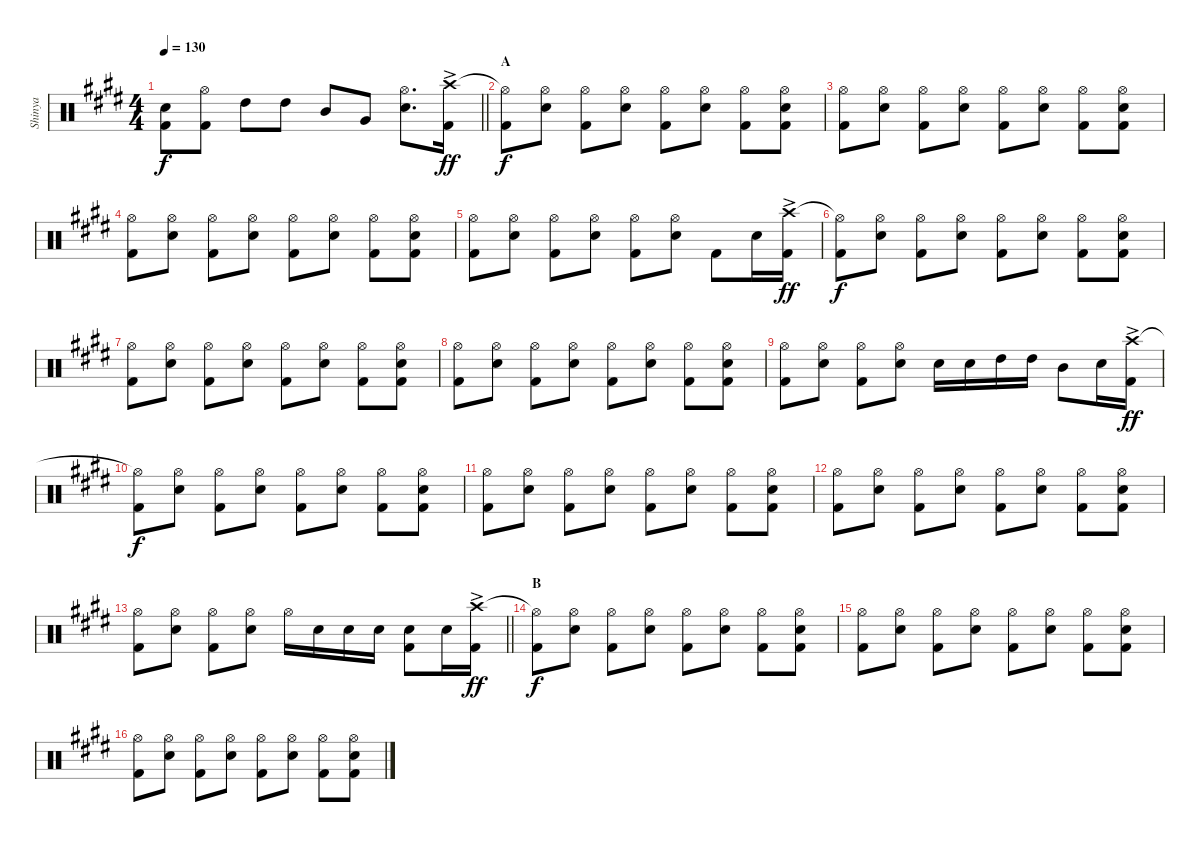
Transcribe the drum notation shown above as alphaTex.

\track ("Shinya" "Shinya") {instrument percussion}
\staff {score}
\articulation defaults
\ts (4 4)
\tempo 130
\clef neutral
\barLineRight lightlight
\ks c#minor
("Snare (hit)"{t} "Kick (hit) 2").8{dy f} ("Hi-Hat (open)" "Kick (hit) 2").8 "High Tom (hit)".8 "High Tom (hit)".8 "Mid Tom (hit)".8 "Very Low Tom (hit)".8 ("Hi-Hat (open)" "Snare (hit) 2").8{d} ("Crash high (hit)"{ac} "Kick (hit) 2").16{dy ff} |
\section ("" "A")
("Hi-Hat (open)"{t} "Kick (hit) 2").8{dy f} ("Hi-Hat (open)" "Snare (hit) 2").8 ("Hi-Hat (open)" "Kick (hit) 2").8 ("Hi-Hat (open)" "Snare (hit) 2").8 ("Hi-Hat (open)" "Kick (hit) 2").8 ("Hi-Hat (open)" "Snare (hit) 2").8 ("Hi-Hat (open)" "Kick (hit) 2").8 ("Hi-Hat (open)" "Snare (hit) 2" "Kick (hit) 2").8 |
("Hi-Hat (open)" "Kick (hit) 2").8 ("Hi-Hat (open)" "Snare (hit) 2").8 ("Hi-Hat (open)" "Kick (hit) 2").8 ("Hi-Hat (open)" "Snare (hit) 2").8 ("Hi-Hat (open)" "Kick (hit) 2").8 ("Hi-Hat (open)" "Snare (hit) 2").8 ("Hi-Hat (open)" "Kick (hit) 2").8 ("Hi-Hat (open)" "Snare (hit) 2" "Kick (hit) 2").8 |
("Hi-Hat (open)" "Kick (hit) 2").8 ("Hi-Hat (open)" "Snare (hit) 2").8 ("Hi-Hat (open)" "Kick (hit) 2").8 ("Hi-Hat (open)" "Snare (hit) 2").8 ("Hi-Hat (open)" "Kick (hit) 2").8 ("Hi-Hat (open)" "Snare (hit) 2").8 ("Hi-Hat (open)" "Kick (hit) 2").8 ("Hi-Hat (open)" "Snare (hit) 2" "Kick (hit) 2").8 |
("Hi-Hat (open)" "Kick (hit) 2").8 ("Hi-Hat (open)" "Snare (hit) 2").8 ("Hi-Hat (open)" "Kick (hit) 2").8 ("Hi-Hat (open)" "Snare (hit) 2").8 ("Hi-Hat (open)" "Kick (hit) 2").8 ("Hi-Hat (open)" "Snare (hit) 2").8 "Kick (hit) 2".8 "Snare (hit) 2".16 ("Crash high (hit)"{ac} "Kick (hit) 2").16{dy ff} |
("Hi-Hat (open)"{t} "Kick (hit) 2").8{dy f} ("Hi-Hat (open)" "Snare (hit) 2").8 ("Hi-Hat (open)" "Kick (hit) 2").8 ("Hi-Hat (open)" "Snare (hit) 2").8 ("Hi-Hat (open)" "Kick (hit) 2").8 ("Hi-Hat (open)" "Snare (hit) 2").8 ("Hi-Hat (open)" "Kick (hit) 2").8 ("Hi-Hat (open)" "Snare (hit) 2" "Kick (hit) 2").8 |
("Hi-Hat (open)" "Kick (hit) 2").8 ("Hi-Hat (open)" "Snare (hit) 2").8 ("Hi-Hat (open)" "Kick (hit) 2").8 ("Hi-Hat (open)" "Snare (hit) 2").8 ("Hi-Hat (open)" "Kick (hit) 2").8 ("Hi-Hat (open)" "Snare (hit) 2").8 ("Hi-Hat (open)" "Kick (hit) 2").8 ("Hi-Hat (open)" "Snare (hit) 2" "Kick (hit) 2").8 |
("Hi-Hat (open)" "Kick (hit) 2").8 ("Hi-Hat (open)" "Snare (hit) 2").8 ("Hi-Hat (open)" "Kick (hit) 2").8 ("Hi-Hat (open)" "Snare (hit) 2").8 ("Hi-Hat (open)" "Kick (hit) 2").8 ("Hi-Hat (open)" "Snare (hit) 2").8 ("Hi-Hat (open)" "Kick (hit) 2").8 ("Hi-Hat (open)" "Snare (hit) 2" "Kick (hit) 2").8 |
("Hi-Hat (open)" "Kick (hit) 2").8 ("Hi-Hat (open)" "Snare (hit) 2").8 ("Hi-Hat (open)" "Kick (hit) 2").8 ("Hi-Hat (open)" "Snare (hit) 2").8 "Snare (hit) 2".16 "Snare (hit) 2".16 "High Tom (hit)".16 "High Tom (hit)".16 "Mid Tom (hit)".8 "Snare (hit) 2".16 ("Crash high (hit)"{ac} "Kick (hit) 2").16{dy ff} |
("Hi-Hat (open)"{t} "Kick (hit) 2").8{dy f} ("Hi-Hat (open)" "Snare (hit) 2").8 ("Hi-Hat (open)" "Kick (hit) 2").8 ("Hi-Hat (open)" "Snare (hit) 2").8 ("Hi-Hat (open)" "Kick (hit) 2").8 ("Hi-Hat (open)" "Snare (hit) 2").8 ("Hi-Hat (open)" "Kick (hit) 2").8 ("Hi-Hat (open)" "Snare (hit) 2" "Kick (hit) 2").8 |
("Hi-Hat (open)" "Kick (hit) 2").8 ("Hi-Hat (open)" "Snare (hit) 2").8 ("Hi-Hat (open)" "Kick (hit) 2").8 ("Hi-Hat (open)" "Snare (hit) 2").8 ("Hi-Hat (open)" "Kick (hit) 2").8 ("Hi-Hat (open)" "Snare (hit) 2").8 ("Hi-Hat (open)" "Kick (hit) 2").8 ("Hi-Hat (open)" "Snare (hit) 2" "Kick (hit) 2").8 |
("Hi-Hat (open)" "Kick (hit) 2").8 ("Hi-Hat (open)" "Snare (hit) 2").8 ("Hi-Hat (open)" "Kick (hit) 2").8 ("Hi-Hat (open)" "Snare (hit) 2").8 ("Hi-Hat (open)" "Kick (hit) 2").8 ("Hi-Hat (open)" "Snare (hit) 2").8 ("Hi-Hat (open)" "Kick (hit) 2").8 ("Hi-Hat (open)" "Snare (hit) 2" "Kick (hit) 2").8 |
\barLineRight lightlight
("Hi-Hat (open)" "Kick (hit) 2").8 ("Hi-Hat (open)" "Snare (hit) 2").8 ("Hi-Hat (open)" "Kick (hit) 2").8 ("Hi-Hat (open)" "Snare (hit) 2").8 "Hi-Hat (open)".16 "Snare (hit) 2".16 "Snare (hit) 2".16 "Snare (hit) 2".16 ("Snare (hit) 2" "Kick (hit) 2").8 "Snare (hit) 2".16 ("Crash high (hit)"{ac} "Kick (hit) 2").16{dy ff} |
\section ("" "B")
("Hi-Hat (open)"{t} "Kick (hit) 2").8{dy f} ("Hi-Hat (open)" "Snare (hit) 2").8 ("Hi-Hat (open)" "Kick (hit) 2").8 ("Hi-Hat (open)" "Snare (hit) 2").8 ("Hi-Hat (open)" "Kick (hit) 2").8 ("Hi-Hat (open)" "Snare (hit) 2").8 ("Hi-Hat (open)" "Kick (hit) 2").8 ("Hi-Hat (open)" "Snare (hit) 2" "Kick (hit) 2").8 |
("Hi-Hat (open)" "Kick (hit) 2").8 ("Hi-Hat (open)" "Snare (hit) 2").8 ("Hi-Hat (open)" "Kick (hit) 2").8 ("Hi-Hat (open)" "Snare (hit) 2").8 ("Hi-Hat (open)" "Kick (hit) 2").8 ("Hi-Hat (open)" "Snare (hit) 2").8 ("Hi-Hat (open)" "Kick (hit) 2").8 ("Hi-Hat (open)" "Snare (hit) 2" "Kick (hit) 2").8 |
("Hi-Hat (open)" "Kick (hit) 2").8 ("Hi-Hat (open)" "Snare (hit) 2").8 ("Hi-Hat (open)" "Kick (hit) 2").8 ("Hi-Hat (open)" "Snare (hit) 2").8 ("Hi-Hat (open)" "Kick (hit) 2").8 ("Hi-Hat (open)" "Snare (hit) 2").8 ("Hi-Hat (open)" "Kick (hit) 2").8 ("Hi-Hat (open)" "Snare (hit) 2" "Kick (hit) 2").8
